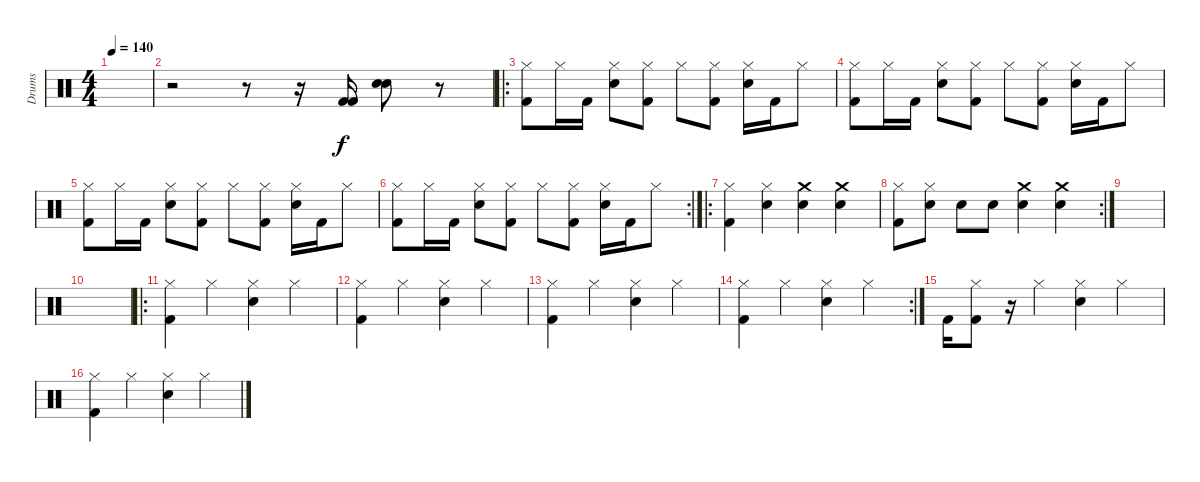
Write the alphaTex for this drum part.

\track ("Drums" "Drums") {instrument percussion}
\staff {score}
\articulation defaults
\ts (4 4)
\tempo 140
\clef neutral
\ks c
|
r.2 r.8 r.16 ("Kick (hit) 2" "Kick (hit) 2").16 ("Snare (hit) 2" "Snare (hit) 2").8 r.8 |
\ro
("Kick (hit) 2" "Hi-Hat (closed)").8 "Hi-Hat (closed)".16 "Kick (hit) 2".16 ("Snare (hit) 2" "Hi-Hat (closed)").8 ("Kick (hit) 2" "Hi-Hat (closed)").8 "Hi-Hat (closed)".8 ("Kick (hit) 2" "Hi-Hat (closed)").8 ("Snare (hit) 2" "Hi-Hat (closed)").16 "Kick (hit) 2".16 "Hi-Hat (closed)".8 |
("Kick (hit) 2" "Hi-Hat (closed)").8 "Hi-Hat (closed)".16 "Kick (hit) 2".16 ("Snare (hit) 2" "Hi-Hat (closed)").8 ("Kick (hit) 2" "Hi-Hat (closed)").8 "Hi-Hat (closed)".8 ("Kick (hit) 2" "Hi-Hat (closed)").8 ("Snare (hit) 2" "Hi-Hat (closed)").16 "Kick (hit) 2".16 "Hi-Hat (closed)".8 |
("Kick (hit) 2" "Hi-Hat (closed)").8 "Hi-Hat (closed)".16 "Kick (hit) 2".16 ("Snare (hit) 2" "Hi-Hat (closed)").8 ("Kick (hit) 2" "Hi-Hat (closed)").8 "Hi-Hat (closed)".8 ("Kick (hit) 2" "Hi-Hat (closed)").8 ("Snare (hit) 2" "Hi-Hat (closed)").16 "Kick (hit) 2".16 "Hi-Hat (closed)".8 |
\rc 2
("Kick (hit) 2" "Hi-Hat (closed)").8 "Hi-Hat (closed)".16 "Kick (hit) 2".16 ("Snare (hit) 2" "Hi-Hat (closed)").8 ("Kick (hit) 2" "Hi-Hat (closed)").8 "Hi-Hat (closed)".8 ("Kick (hit) 2" "Hi-Hat (closed)").8 ("Snare (hit) 2" "Hi-Hat (closed)").16 "Kick (hit) 2".16 "Hi-Hat (closed)".8 |
\ro
("Kick (hit) 2" "Hi-Hat (closed)").4 ("Snare (hit) 2" "Hi-Hat (closed)").4 ("Crash medium (hit)" "Snare (hit) 2").4 ("Crash medium (hit)" "Snare (hit) 2").4 |
\rc 2
("Kick (hit) 2" "Hi-Hat (closed)").8 ("Snare (hit) 2" "Hi-Hat (closed)").8 "Snare (hit) 2".8 "Snare (hit) 2".8 ("Crash medium (hit)" "Snare (hit) 2").4 ("Crash medium (hit)" "Snare (hit) 2").4 |
|
|
\ro
("Kick (hit) 2" "Hi-Hat (closed)").4 "Hi-Hat (closed)".4 ("Snare (hit) 2" "Hi-Hat (closed)").4 "Hi-Hat (closed)".4 |
("Kick (hit) 2" "Hi-Hat (closed)").4 "Hi-Hat (closed)".4 ("Snare (hit) 2" "Hi-Hat (closed)").4 "Hi-Hat (closed)".4 |
("Kick (hit) 2" "Hi-Hat (closed)").4 "Hi-Hat (closed)".4 ("Snare (hit) 2" "Hi-Hat (closed)").4 "Hi-Hat (closed)".4 |
\rc 2
("Kick (hit) 2" "Hi-Hat (closed)").4 "Hi-Hat (closed)".4 ("Snare (hit) 2" "Hi-Hat (closed)").4 "Hi-Hat (closed)".4 |
"Kick (hit) 2".16 ("Kick (hit) 2" "Hi-Hat (closed)").8 r.16 "Hi-Hat (closed)".4 ("Snare (hit) 2" "Hi-Hat (closed)").4 "Hi-Hat (closed)".4 |
("Kick (hit) 2" "Hi-Hat (closed)").4 "Hi-Hat (closed)".4 ("Snare (hit) 2" "Hi-Hat (closed)").4 "Hi-Hat (closed)".4
